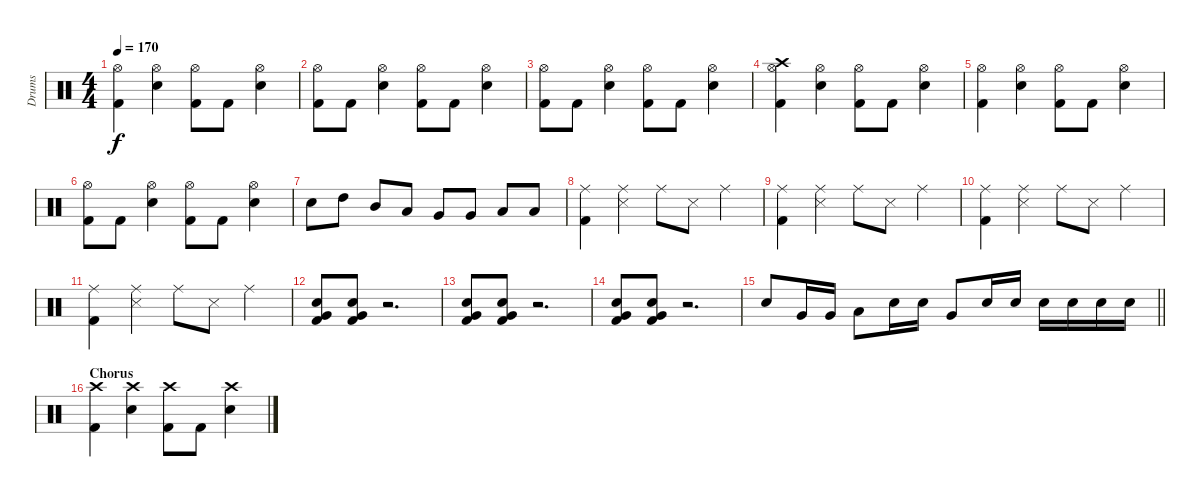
\track ("Drums" "Drums") {instrument percussion}
\staff {score}
\articulation defaults
\ts (4 4)
\tempo 170
\clef neutral
\ks c
("Hi-Hat (open)" "Kick (hit) 2").4{dy f} ("Hi-Hat (open)" "Electric Snare (hit)").4 ("Hi-Hat (open)" "Kick (hit) 2").8 "Kick (hit) 2".8 ("Hi-Hat (open)" "Electric Snare (hit)").4 |
("Hi-Hat (open)" "Kick (hit) 2").8 "Kick (hit) 2".8 ("Hi-Hat (open)" "Electric Snare (hit)").4 ("Hi-Hat (open)" "Kick (hit) 2").8 "Kick (hit) 2".8 ("Hi-Hat (open)" "Electric Snare (hit)").4 |
("Hi-Hat (open)" "Kick (hit) 2").8 "Kick (hit) 2".8 ("Hi-Hat (open)" "Electric Snare (hit)").4 ("Hi-Hat (open)" "Kick (hit) 2").8 "Kick (hit) 2".8 ("Hi-Hat (open)" "Electric Snare (hit)").4 |
("Crash high (hit)" "Hi-Hat (open)" "Kick (hit) 2").4 ("Hi-Hat (open)" "Electric Snare (hit)").4 ("Hi-Hat (open)" "Kick (hit) 2").8 "Kick (hit) 2".8 ("Hi-Hat (open)" "Electric Snare (hit)").4 |
("Hi-Hat (open)" "Kick (hit) 2").4 ("Hi-Hat (open)" "Electric Snare (hit)").4 ("Hi-Hat (open)" "Kick (hit) 2").8 "Kick (hit) 2".8 ("Hi-Hat (open)" "Electric Snare (hit)").4 |
("Hi-Hat (open)" "Kick (hit) 2").8 "Kick (hit) 2".8 ("Hi-Hat (open)" "Electric Snare (hit)").4 ("Hi-Hat (open)" "Kick (hit) 2").8 "Kick (hit) 2".8 ("Hi-Hat (open)" "Electric Snare (hit)").4 |
"Electric Snare (hit)".8 "High Tom (hit)".8 "Mid Tom (hit)".8 "Low Tom (hit)".8 "Very Low Tom (hit)".8 "Very Low Tom (hit)".8 "Low Floor Tom (hit)".8 "Low Floor Tom (hit)".8 |
("Ride (middle)" "Kick (hit) 2").4 ("Ride (middle)" "Snare (side stick) 3").4 "Ride (middle)".8 "Snare (side stick) 3".8 "Ride (middle)".4 |
("Ride (middle)" "Kick (hit) 2").4 ("Ride (middle)" "Snare (side stick) 3").4 "Ride (middle)".8 "Snare (side stick) 3".8 "Ride (middle)".4 |
("Ride (middle)" "Kick (hit) 2").4 ("Ride (middle)" "Snare (side stick) 3").4 "Ride (middle)".8 "Snare (side stick) 3".8 "Ride (middle)".4 |
("Ride (middle)" "Kick (hit) 2").4 ("Ride (middle)" "Snare (side stick) 3").4 "Ride (middle)".8 "Snare (side stick) 3".8 "Ride (middle)".4 |
("Very Low Tom (hit)" "Electric Snare (hit)" "Kick (hit) 2").8 ("Very Low Tom (hit)" "Electric Snare (hit)" "Kick (hit) 2").8 r.2{d} |
("Very Low Tom (hit)" "Electric Snare (hit)" "Kick (hit) 2").8 ("Very Low Tom (hit)" "Electric Snare (hit)" "Kick (hit) 2").8 r.2{d} |
("Very Low Tom (hit)" "Electric Snare (hit)" "Kick (hit) 2").8 ("Very Low Tom (hit)" "Electric Snare (hit)" "Kick (hit) 2").8 r.2{d} |
\barLineRight lightlight "Electric Snare (hit)".8 "Very Low Tom (hit)".16 "Very Low Tom (hit)".16 "Low Tom (hit)".8 "Electric Snare (hit)".16 "Electric Snare (hit)".16 "Very Low Tom (hit)".8 "Electric Snare (hit)".16 "Electric Snare (hit)".16 "Electric Snare (hit)".16 "Electric Snare (hit)".16 "Electric Snare (hit)".16 "Electric Snare (hit)".16
|
\section ("" "Chorus")
("Crash high (hit)" "Kick (hit) 2").4 ("Crash high (hit)" "Electric Snare (hit)").4 ("Crash high (hit)" "Kick (hit) 2").8 "Kick (hit) 2".8 ("Crash high (hit)" "Electric Snare (hit)").4
